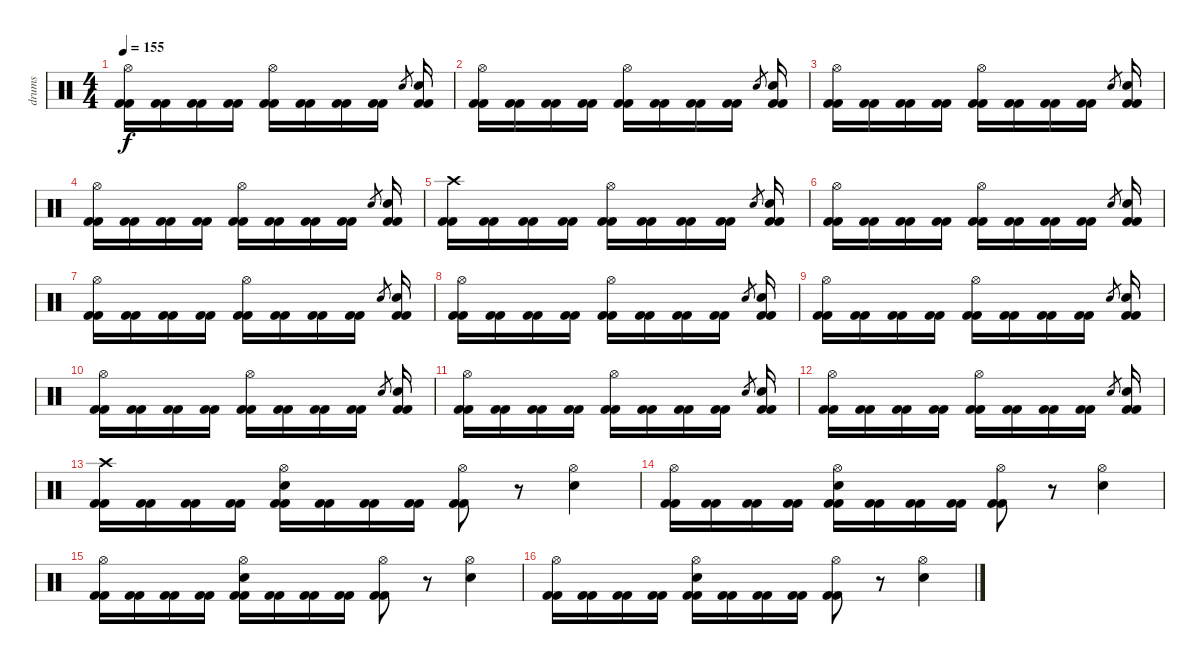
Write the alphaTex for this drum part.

\track ("drums" "drums") {instrument percussion}
\staff {score}
\articulation defaults
\ts (4 4)
\tempo 155
\clef neutral
\ks c
("Hi-Hat (open)" "Kick (hit) 2" "Kick (hit) 2").16{dy f} ("Kick (hit) 2" "Kick (hit) 2").16 ("Kick (hit) 2" "Kick (hit) 2").16 ("Kick (hit) 2" "Kick (hit) 2").16 ("Hi-Hat (open)" "Kick (hit) 2" "Kick (hit) 2").16 ("Kick (hit) 2" "Kick (hit) 2").16 ("Kick (hit) 2" "Kick (hit) 2").16 ("Kick (hit) 2" "Kick (hit) 2").16 "Electric Snare (hit)".8{gr} ("Electric Snare (hit)" "Kick (hit) 2" "Kick (hit) 2").16 |
("Hi-Hat (open)" "Kick (hit) 2" "Kick (hit) 2").16 ("Kick (hit) 2" "Kick (hit) 2").16 ("Kick (hit) 2" "Kick (hit) 2").16 ("Kick (hit) 2" "Kick (hit) 2").16 ("Hi-Hat (open)" "Kick (hit) 2" "Kick (hit) 2").16 ("Kick (hit) 2" "Kick (hit) 2").16 ("Kick (hit) 2" "Kick (hit) 2").16 ("Kick (hit) 2" "Kick (hit) 2").16 "Electric Snare (hit)".8{gr} ("Electric Snare (hit)" "Kick (hit) 2" "Kick (hit) 2").16 |
("Hi-Hat (open)" "Kick (hit) 2" "Kick (hit) 2").16 ("Kick (hit) 2" "Kick (hit) 2").16 ("Kick (hit) 2" "Kick (hit) 2").16 ("Kick (hit) 2" "Kick (hit) 2").16 ("Hi-Hat (open)" "Kick (hit) 2" "Kick (hit) 2").16 ("Kick (hit) 2" "Kick (hit) 2").16 ("Kick (hit) 2" "Kick (hit) 2").16 ("Kick (hit) 2" "Kick (hit) 2").16 "Electric Snare (hit)".8{gr} ("Electric Snare (hit)" "Kick (hit) 2" "Kick (hit) 2").16 |
("Hi-Hat (open)" "Kick (hit) 2" "Kick (hit) 2").16 ("Kick (hit) 2" "Kick (hit) 2").16 ("Kick (hit) 2" "Kick (hit) 2").16 ("Kick (hit) 2" "Kick (hit) 2").16 ("Hi-Hat (open)" "Kick (hit) 2" "Kick (hit) 2").16 ("Kick (hit) 2" "Kick (hit) 2").16 ("Kick (hit) 2" "Kick (hit) 2").16 ("Kick (hit) 2" "Kick (hit) 2").16 "Electric Snare (hit)".8{gr} ("Electric Snare (hit)" "Kick (hit) 2" "Kick (hit) 2").16 |
("Crash high (hit)" "Kick (hit) 2" "Kick (hit) 2").16 ("Kick (hit) 2" "Kick (hit) 2").16 ("Kick (hit) 2" "Kick (hit) 2").16 ("Kick (hit) 2" "Kick (hit) 2").16 ("Hi-Hat (open)" "Kick (hit) 2" "Kick (hit) 2").16 ("Kick (hit) 2" "Kick (hit) 2").16 ("Kick (hit) 2" "Kick (hit) 2").16 ("Kick (hit) 2" "Kick (hit) 2").16 "Electric Snare (hit)".8{gr} ("Electric Snare (hit)" "Kick (hit) 2" "Kick (hit) 2").16 |
("Hi-Hat (open)" "Kick (hit) 2" "Kick (hit) 2").16 ("Kick (hit) 2" "Kick (hit) 2").16 ("Kick (hit) 2" "Kick (hit) 2").16 ("Kick (hit) 2" "Kick (hit) 2").16 ("Hi-Hat (open)" "Kick (hit) 2" "Kick (hit) 2").16 ("Kick (hit) 2" "Kick (hit) 2").16 ("Kick (hit) 2" "Kick (hit) 2").16 ("Kick (hit) 2" "Kick (hit) 2").16 "Electric Snare (hit)".8{gr} ("Electric Snare (hit)" "Kick (hit) 2" "Kick (hit) 2").16 |
("Hi-Hat (open)" "Kick (hit) 2" "Kick (hit) 2").16 ("Kick (hit) 2" "Kick (hit) 2").16 ("Kick (hit) 2" "Kick (hit) 2").16 ("Kick (hit) 2" "Kick (hit) 2").16 ("Hi-Hat (open)" "Kick (hit) 2" "Kick (hit) 2").16 ("Kick (hit) 2" "Kick (hit) 2").16 ("Kick (hit) 2" "Kick (hit) 2").16 ("Kick (hit) 2" "Kick (hit) 2").16 "Electric Snare (hit)".8{gr} ("Electric Snare (hit)" "Kick (hit) 2" "Kick (hit) 2").16 |
("Hi-Hat (open)" "Kick (hit) 2" "Kick (hit) 2").16 ("Kick (hit) 2" "Kick (hit) 2").16 ("Kick (hit) 2" "Kick (hit) 2").16 ("Kick (hit) 2" "Kick (hit) 2").16 ("Hi-Hat (open)" "Kick (hit) 2" "Kick (hit) 2").16 ("Kick (hit) 2" "Kick (hit) 2").16 ("Kick (hit) 2" "Kick (hit) 2").16 ("Kick (hit) 2" "Kick (hit) 2").16 "Electric Snare (hit)".8{gr} ("Electric Snare (hit)" "Kick (hit) 2" "Kick (hit) 2").16 |
("Hi-Hat (open)" "Kick (hit) 2" "Kick (hit) 2").16 ("Kick (hit) 2" "Kick (hit) 2").16 ("Kick (hit) 2" "Kick (hit) 2").16 ("Kick (hit) 2" "Kick (hit) 2").16 ("Hi-Hat (open)" "Kick (hit) 2" "Kick (hit) 2").16 ("Kick (hit) 2" "Kick (hit) 2").16 ("Kick (hit) 2" "Kick (hit) 2").16 ("Kick (hit) 2" "Kick (hit) 2").16 "Electric Snare (hit)".8{gr} ("Electric Snare (hit)" "Kick (hit) 2" "Kick (hit) 2").16 |
("Hi-Hat (open)" "Kick (hit) 2" "Kick (hit) 2").16 ("Kick (hit) 2" "Kick (hit) 2").16 ("Kick (hit) 2" "Kick (hit) 2").16 ("Kick (hit) 2" "Kick (hit) 2").16 ("Hi-Hat (open)" "Kick (hit) 2" "Kick (hit) 2").16 ("Kick (hit) 2" "Kick (hit) 2").16 ("Kick (hit) 2" "Kick (hit) 2").16 ("Kick (hit) 2" "Kick (hit) 2").16 "Electric Snare (hit)".8{gr} ("Electric Snare (hit)" "Kick (hit) 2" "Kick (hit) 2").16 |
("Hi-Hat (open)" "Kick (hit) 2" "Kick (hit) 2").16 ("Kick (hit) 2" "Kick (hit) 2").16 ("Kick (hit) 2" "Kick (hit) 2").16 ("Kick (hit) 2" "Kick (hit) 2").16 ("Hi-Hat (open)" "Kick (hit) 2" "Kick (hit) 2").16 ("Kick (hit) 2" "Kick (hit) 2").16 ("Kick (hit) 2" "Kick (hit) 2").16 ("Kick (hit) 2" "Kick (hit) 2").16 "Electric Snare (hit)".8{gr} ("Electric Snare (hit)" "Kick (hit) 2" "Kick (hit) 2").16 |
("Hi-Hat (open)" "Kick (hit) 2" "Kick (hit) 2").16 ("Kick (hit) 2" "Kick (hit) 2").16 ("Kick (hit) 2" "Kick (hit) 2").16 ("Kick (hit) 2" "Kick (hit) 2").16 ("Hi-Hat (open)" "Kick (hit) 2" "Kick (hit) 2").16 ("Kick (hit) 2" "Kick (hit) 2").16 ("Kick (hit) 2" "Kick (hit) 2").16 ("Kick (hit) 2" "Kick (hit) 2").16 "Electric Snare (hit)".8{gr} ("Electric Snare (hit)" "Kick (hit) 2" "Kick (hit) 2").16 |
("Crash high (hit)" "Kick (hit) 2" "Kick (hit) 2").16 ("Kick (hit) 2" "Kick (hit) 2").16 ("Kick (hit) 2" "Kick (hit) 2").16 ("Kick (hit) 2" "Kick (hit) 2").16 ("Hi-Hat (open)" "Electric Snare (hit)" "Kick (hit) 2" "Kick (hit) 2").16 ("Kick (hit) 2" "Kick (hit) 2").16 ("Kick (hit) 2" "Kick (hit) 2").16 ("Kick (hit) 2" "Kick (hit) 2").16 ("Hi-Hat (open)" "Kick (hit) 2" "Kick (hit) 2").8 r.8 ("Hi-Hat (open)" "Electric Snare (hit)").4 |
("Hi-Hat (open)" "Kick (hit) 2" "Kick (hit) 2").16 ("Kick (hit) 2" "Kick (hit) 2").16 ("Kick (hit) 2" "Kick (hit) 2").16 ("Kick (hit) 2" "Kick (hit) 2").16 ("Hi-Hat (open)" "Electric Snare (hit)" "Kick (hit) 2" "Kick (hit) 2").16 ("Kick (hit) 2" "Kick (hit) 2").16 ("Kick (hit) 2" "Kick (hit) 2").16 ("Kick (hit) 2" "Kick (hit) 2").16 ("Hi-Hat (open)" "Kick (hit) 2" "Kick (hit) 2").8 r.8 ("Hi-Hat (open)" "Electric Snare (hit)").4 |
("Hi-Hat (open)" "Kick (hit) 2" "Kick (hit) 2").16 ("Kick (hit) 2" "Kick (hit) 2").16 ("Kick (hit) 2" "Kick (hit) 2").16 ("Kick (hit) 2" "Kick (hit) 2").16 ("Hi-Hat (open)" "Electric Snare (hit)" "Kick (hit) 2" "Kick (hit) 2").16 ("Kick (hit) 2" "Kick (hit) 2").16 ("Kick (hit) 2" "Kick (hit) 2").16 ("Kick (hit) 2" "Kick (hit) 2").16 ("Hi-Hat (open)" "Kick (hit) 2" "Kick (hit) 2").8 r.8 ("Hi-Hat (open)" "Electric Snare (hit)").4 |
("Hi-Hat (open)" "Kick (hit) 2" "Kick (hit) 2").16 ("Kick (hit) 2" "Kick (hit) 2").16 ("Kick (hit) 2" "Kick (hit) 2").16 ("Kick (hit) 2" "Kick (hit) 2").16 ("Hi-Hat (open)" "Electric Snare (hit)" "Kick (hit) 2" "Kick (hit) 2").16 ("Kick (hit) 2" "Kick (hit) 2").16 ("Kick (hit) 2" "Kick (hit) 2").16 ("Kick (hit) 2" "Kick (hit) 2").16 ("Hi-Hat (open)" "Kick (hit) 2" "Kick (hit) 2").8 r.8 ("Hi-Hat (open)" "Electric Snare (hit)").4
